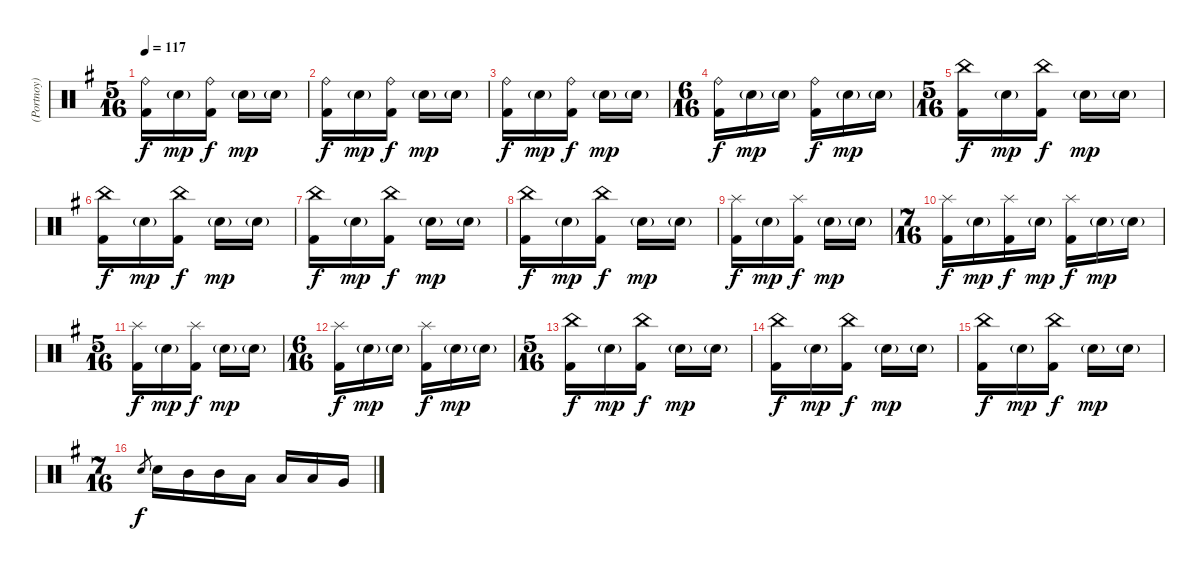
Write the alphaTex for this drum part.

\track ("(Portnoy) Drums" "(Portnoy) ") {instrument percussion}
\staff {score}
\articulation defaults
\ts (5 16)
\tempo 117
\clef neutral
\ks eminor
("Ride (bell)" "Kick (hit) 2").16{dy f} "Snare (hit) 2"{g}.16{dy mp} ("Ride (bell)" "Kick (hit) 2").16{dy f} "Snare (hit) 2"{g}.16{dy mp} "Snare (hit) 2"{g}.16 |
("Ride (bell)" "Kick (hit) 2").16{dy f} "Snare (hit) 2"{g}.16{dy mp} ("Ride (bell)" "Kick (hit) 2").16{dy f} "Snare (hit) 2"{g}.16{dy mp} "Snare (hit) 2"{g}.16 |
("Ride (bell)" "Kick (hit) 2").16{dy f} "Snare (hit) 2"{g}.16{dy mp} ("Ride (bell)" "Kick (hit) 2").16{dy f} "Snare (hit) 2"{g}.16{dy mp} "Snare (hit) 2"{g}.16 |
\ts (6 16)
("Ride (bell)" "Kick (hit) 2").16{dy f} "Snare (hit) 2"{g}.16{dy mp} "Snare (hit) 2"{g}.16 ("Ride (bell)" "Kick (hit) 2").16{dy f} "Snare (hit) 2"{g}.16{dy mp} "Snare (hit) 2"{g}.16 |
\ts (5 16)
("China (hit)" "Kick (hit) 2").16{dy f} "Snare (hit) 2"{g}.16{dy mp} ("China (hit)" "Kick (hit) 2").16{dy f} "Snare (hit) 2"{g}.16{dy mp} "Snare (hit) 2"{g}.16 |
("China (hit)" "Kick (hit) 2").16{dy f} "Snare (hit) 2"{g}.16{dy mp} ("China (hit)" "Kick (hit) 2").16{dy f} "Snare (hit) 2"{g}.16{dy mp} "Snare (hit) 2"{g}.16 |
("China (hit)" "Kick (hit) 2").16{dy f} "Snare (hit) 2"{g}.16{dy mp} ("China (hit)" "Kick (hit) 2").16{dy f} "Snare (hit) 2"{g}.16{dy mp} "Snare (hit) 2"{g}.16 |
("China (hit)" "Kick (hit) 2").16{dy f} "Snare (hit) 2"{g}.16{dy mp} ("China (hit)" "Kick (hit) 2").16{dy f} "Snare (hit) 2"{g}.16{dy mp} "Snare (hit) 2"{g}.16 |
("Splash (hit)" "Kick (hit) 2").16{dy f} "Snare (hit) 2"{g}.16{dy mp} ("Splash (hit)" "Kick (hit) 2").16{dy f} "Snare (hit) 2"{g}.16{dy mp} "Snare (hit) 2"{g}.16 |
\ts (7 16)
("Splash (hit)" "Kick (hit) 2").16{dy f} "Snare (hit) 2"{g}.16{dy mp} ("Splash (hit)" "Kick (hit) 2").16{dy f} "Snare (hit) 2"{g}.16{dy mp} ("Splash (hit)" "Kick (hit) 2").16{dy f} "Snare (hit) 2"{g}.16{dy mp} "Snare (hit) 2"{g}.16 |
\ts (5 16)
("Splash (hit)" "Kick (hit) 2").16{dy f} "Snare (hit) 2"{g}.16{dy mp} ("Splash (hit)" "Kick (hit) 2").16{dy f} "Snare (hit) 2"{g}.16{dy mp} "Snare (hit) 2"{g}.16 |
\ts (6 16)
("Splash (hit)" "Kick (hit) 2").16{dy f} "Snare (hit) 2"{g}.16{dy mp} "Snare (hit) 2"{g}.16 ("Splash (hit)" "Kick (hit) 2").16{dy f} "Snare (hit) 2"{g}.16{dy mp} "Snare (hit) 2"{g}.16 |
\ts (5 16)
("China (hit)" "Kick (hit) 2").16{dy f} "Snare (hit) 2"{g}.16{dy mp} ("China (hit)" "Kick (hit) 2").16{dy f} "Snare (hit) 2"{g}.16{dy mp} "Snare (hit) 2"{g}.16 |
("China (hit)" "Kick (hit) 2").16{dy f} "Snare (hit) 2"{g}.16{dy mp} ("China (hit)" "Kick (hit) 2").16{dy f} "Snare (hit) 2"{g}.16{dy mp} "Snare (hit) 2"{g}.16 |
("China (hit)" "Kick (hit) 2").16{dy f} "Snare (hit) 2"{g}.16{dy mp} ("China (hit)" "Kick (hit) 2").16{dy f} "Snare (hit) 2"{g}.16{dy mp} "Snare (hit) 2"{g}.16 |
\ts (7 16)
"Snare (hit) 2".8{gr dy f} "Snare (hit) 2".16 "Mid Tom (hit)".16 "Mid Tom (hit)".16 "Low Tom (hit)".16 "Low Tom (hit)".16 "Low Tom (hit)".16 "Very Low Tom (hit)".16
